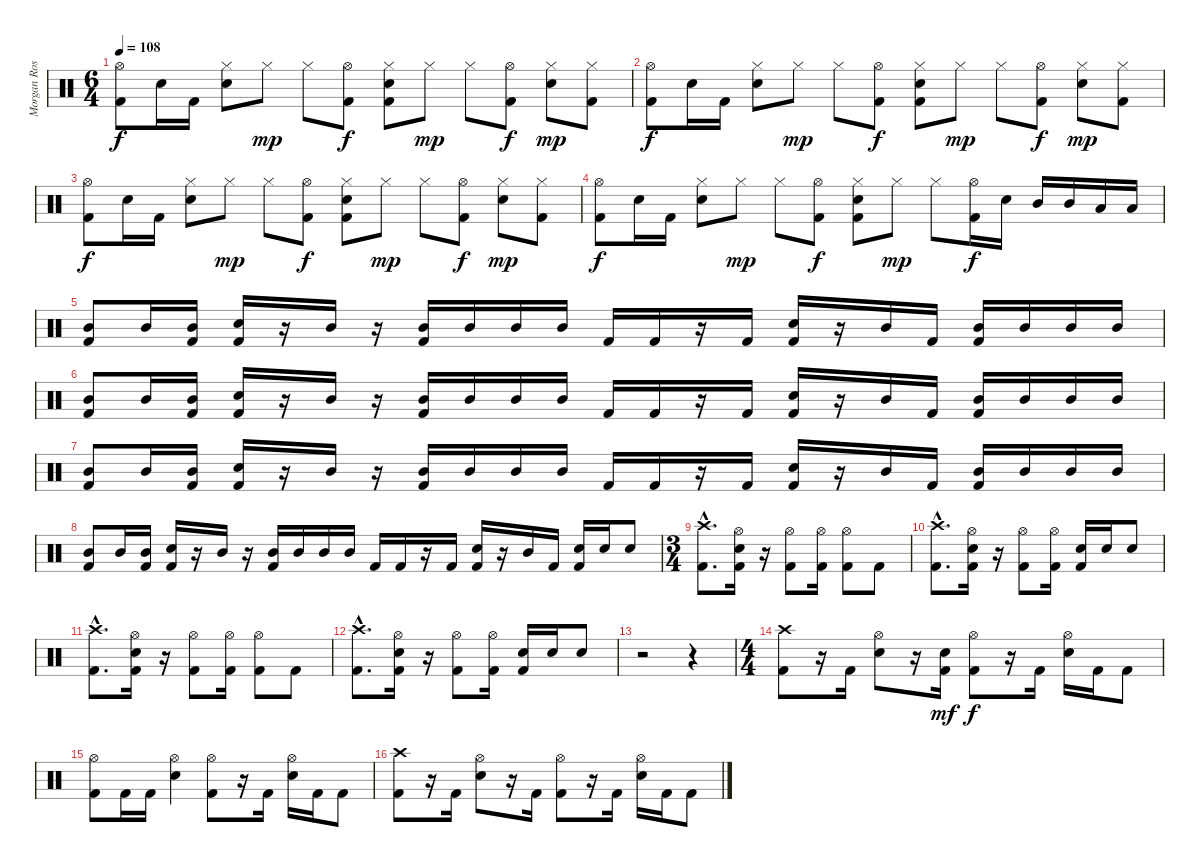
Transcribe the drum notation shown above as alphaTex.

\track ("Morgan Rose - Drums" "Morgan Ros") {instrument percussion}
\staff {score}
\articulation defaults
\ts (6 4)
\tempo 108
\clef neutral
\ks c
("Hi-Hat (open)" "Kick (hit) 2").8{dy f} "Snare (hit)"{x}.16 "Kick (hit) 2".16 ("Hi-Hat (closed)" "Electric Snare (hit)").8 "Hi-Hat (closed)".8{dy mp} "Hi-Hat (closed)".8 ("Hi-Hat (open)" "Kick (hit) 2").8{dy f} ("Hi-Hat (closed)" "Electric Snare (hit)" "Kick (hit) 2").8 "Hi-Hat (closed)".8{dy mp} "Hi-Hat (closed)".8 ("Hi-Hat (open)" "Kick (hit) 2").8{dy f} ("Hi-Hat (closed)" "Electric Snare (hit)").8{dy mp} ("Hi-Hat (closed)" "Kick (hit) 2").8 |
("Hi-Hat (open)" "Kick (hit) 2").8{dy f} "Snare (hit)"{x}.16 "Kick (hit) 2".16 ("Hi-Hat (closed)" "Electric Snare (hit)").8 "Hi-Hat (closed)".8{dy mp} "Hi-Hat (closed)".8 ("Hi-Hat (open)" "Kick (hit) 2").8{dy f} ("Hi-Hat (closed)" "Electric Snare (hit)" "Kick (hit) 2").8 "Hi-Hat (closed)".8{dy mp} "Hi-Hat (closed)".8 ("Hi-Hat (open)" "Kick (hit) 2").8{dy f} ("Hi-Hat (closed)" "Electric Snare (hit)").8{dy mp} ("Hi-Hat (closed)" "Kick (hit) 2").8 |
("Hi-Hat (open)" "Kick (hit) 2").8{dy f} "Snare (hit)"{x}.16 "Kick (hit) 2".16 ("Hi-Hat (closed)" "Electric Snare (hit)").8 "Hi-Hat (closed)".8{dy mp} "Hi-Hat (closed)".8 ("Hi-Hat (open)" "Kick (hit) 2").8{dy f} ("Hi-Hat (closed)" "Electric Snare (hit)" "Kick (hit) 2").8 "Hi-Hat (closed)".8{dy mp} "Hi-Hat (closed)".8 ("Hi-Hat (open)" "Kick (hit) 2").8{dy f} ("Hi-Hat (closed)" "Electric Snare (hit)").8{dy mp} ("Hi-Hat (closed)" "Kick (hit) 2").8 |
("Hi-Hat (open)" "Kick (hit) 2").8{dy f} "Snare (hit)"{x}.16 "Kick (hit) 2".16 ("Hi-Hat (closed)" "Electric Snare (hit)").8 "Hi-Hat (closed)".8{dy mp} "Hi-Hat (closed)".8 ("Hi-Hat (open)" "Kick (hit) 2").8{dy f} ("Hi-Hat (closed)" "Electric Snare (hit)" "Kick (hit) 2").8 "Hi-Hat (closed)".8{dy mp} "Hi-Hat (closed)".8 ("Hi-Hat (open)" "Kick (hit) 2").16{dy f} "Electric Snare (hit)".16 "Mid Tom (hit)".16 "Mid Tom (hit)".16 "Low Tom (hit)".16 "Low Tom (hit)".16 |
("Mid Tom (hit)" "Kick (hit) 2").8 "Mid Tom (hit)".16 ("Mid Tom (hit)" "Kick (hit) 2").16 ("Electric Snare (hit)" "Kick (hit) 2").16 r.16 "Mid Tom (hit)".16 r.16 ("Mid Tom (hit)" "Kick (hit) 2").16 "Mid Tom (hit)".16 "Mid Tom (hit)".16 "Mid Tom (hit)".16 "Kick (hit) 2".16 "Kick (hit) 2".16 r.16 "Kick (hit) 2".16 ("Electric Snare (hit)" "Kick (hit) 2").16 r.16 "Mid Tom (hit)".16 "Kick (hit) 2".16 ("Mid Tom (hit)" "Kick (hit) 2").16 "Mid Tom (hit)".16 "Mid Tom (hit)".16 "Mid Tom (hit)".16 |
("Mid Tom (hit)" "Kick (hit) 2").8 "Mid Tom (hit)".16 ("Mid Tom (hit)" "Kick (hit) 2").16 ("Electric Snare (hit)" "Kick (hit) 2").16 r.16 "Mid Tom (hit)".16 r.16 ("Mid Tom (hit)" "Kick (hit) 2").16 "Mid Tom (hit)".16 "Mid Tom (hit)".16 "Mid Tom (hit)".16 "Kick (hit) 2".16 "Kick (hit) 2".16 r.16 "Kick (hit) 2".16 ("Electric Snare (hit)" "Kick (hit) 2").16 r.16 "Mid Tom (hit)".16 "Kick (hit) 2".16 ("Mid Tom (hit)" "Kick (hit) 2").16 "Mid Tom (hit)".16 "Mid Tom (hit)".16 "Mid Tom (hit)".16 |
("Mid Tom (hit)" "Kick (hit) 2").8 "Mid Tom (hit)".16 ("Mid Tom (hit)" "Kick (hit) 2").16 ("Electric Snare (hit)" "Kick (hit) 2").16 r.16 "Mid Tom (hit)".16 r.16 ("Mid Tom (hit)" "Kick (hit) 2").16 "Mid Tom (hit)".16 "Mid Tom (hit)".16 "Mid Tom (hit)".16 "Kick (hit) 2".16 "Kick (hit) 2".16 r.16 "Kick (hit) 2".16 ("Electric Snare (hit)" "Kick (hit) 2").16 r.16 "Mid Tom (hit)".16 "Kick (hit) 2".16 ("Mid Tom (hit)" "Kick (hit) 2").16 "Mid Tom (hit)".16 "Mid Tom (hit)".16 "Mid Tom (hit)".16 |
("Mid Tom (hit)" "Kick (hit) 2").8 "Mid Tom (hit)".16 ("Mid Tom (hit)" "Kick (hit) 2").16 ("Electric Snare (hit)" "Kick (hit) 2").16 r.16 "Mid Tom (hit)".16 r.16 ("Mid Tom (hit)" "Kick (hit) 2").16 "Mid Tom (hit)".16 "Mid Tom (hit)".16 "Mid Tom (hit)".16 "Kick (hit) 2".16 "Kick (hit) 2".16 r.16 "Kick (hit) 2".16 ("Electric Snare (hit)" "Kick (hit) 2").16 r.16 "Mid Tom (hit)".16 "Kick (hit) 2".16 ("Electric Snare (hit)" "Kick (hit) 2").16 "Electric Snare (hit)".16 "Electric Snare (hit)".8 |
\ts (3 4)
("Crash high (hit)"{hac} "Kick (hit) 2"{hac}).8{d} ("Hi-Hat (open)" "Electric Snare (hit)" "Kick (hit) 2").16 r.16 ("Hi-Hat (open)" "Kick (hit) 2").8 ("Hi-Hat (open)" "Kick (hit) 2").16 ("Hi-Hat (open)" "Kick (hit) 2").8 "Kick (hit) 2".8 |
("Crash high (hit)"{hac} "Kick (hit) 2"{hac}).8{d} ("Hi-Hat (open)" "Electric Snare (hit)" "Kick (hit) 2").16 r.16 ("Hi-Hat (open)" "Kick (hit) 2").8 ("Hi-Hat (open)" "Kick (hit) 2").16 ("Electric Snare (hit)" "Kick (hit) 2").16 "Electric Snare (hit)".16 "Electric Snare (hit)".8 |
("Crash high (hit)"{hac} "Kick (hit) 2"{hac}).8{d} ("Hi-Hat (open)" "Electric Snare (hit)" "Kick (hit) 2").16 r.16 ("Hi-Hat (open)" "Kick (hit) 2").8 ("Hi-Hat (open)" "Kick (hit) 2").16 ("Hi-Hat (open)" "Kick (hit) 2").8 "Kick (hit) 2".8 |
("Crash high (hit)"{hac} "Kick (hit) 2"{hac}).8{d} ("Hi-Hat (open)" "Electric Snare (hit)" "Kick (hit) 2").16 r.16 ("Hi-Hat (open)" "Kick (hit) 2").8 ("Hi-Hat (open)" "Kick (hit) 2").16 ("Electric Snare (hit)" "Kick (hit) 2").16 "Electric Snare (hit)".16 "Electric Snare (hit)".8 |
r.2 r.4 |
\ts (4 4)
("Crash high (hit)" "Kick (hit) 2").8 r.16 "Kick (hit) 2".16 ("Hi-Hat (open)" "Electric Snare (hit)").8 r.16 ("Electric Snare (hit)" "Kick (hit) 2").16{dy mf} ("Hi-Hat (open)" "Kick (hit) 2").8{dy f} r.16 "Kick (hit) 2".16 ("Hi-Hat (open)" "Electric Snare (hit)").16 "Kick (hit) 2".16 "Kick (hit) 2".8 |
("Hi-Hat (open)" "Kick (hit) 2").8 "Kick (hit) 2".16 "Kick (hit) 2".16 ("Hi-Hat (open)" "Electric Snare (hit)").4 ("Hi-Hat (open)" "Kick (hit) 2").8 r.16 "Kick (hit) 2".16 ("Hi-Hat (open)" "Electric Snare (hit)").16 "Kick (hit) 2".16 "Kick (hit) 2".8 |
("Crash high (hit)" "Kick (hit) 2").8 r.16 "Kick (hit) 2".16 ("Hi-Hat (open)" "Electric Snare (hit)").8 r.16 "Kick (hit) 2".16 ("Hi-Hat (open)" "Kick (hit) 2").8 r.16 "Kick (hit) 2".16 ("Hi-Hat (open)" "Electric Snare (hit)").16 "Kick (hit) 2".16 "Kick (hit) 2".8
